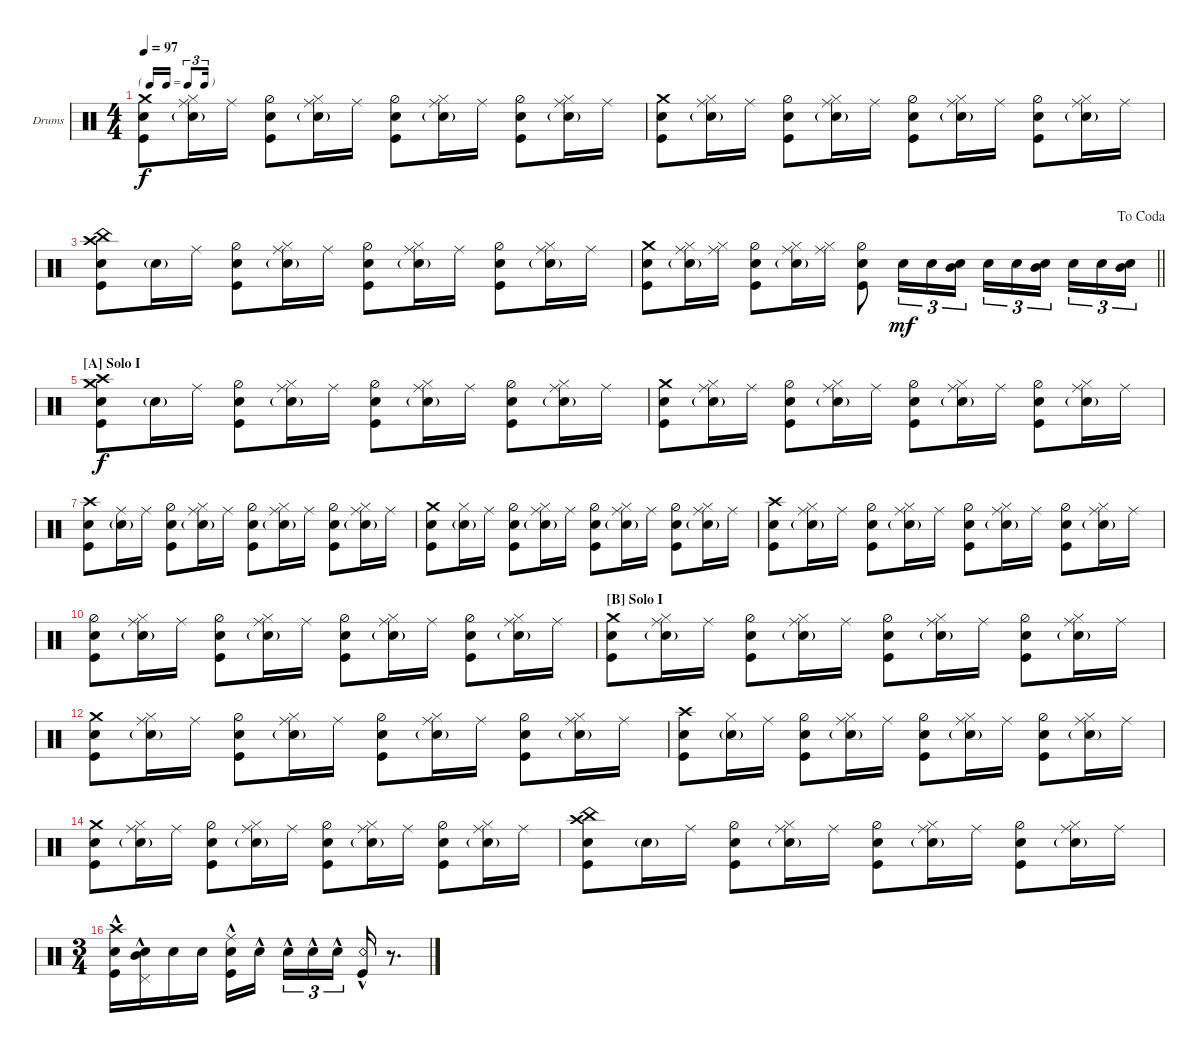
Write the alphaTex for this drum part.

\defaultSystemsLayout 4
\bracketExtendMode nobrackets
\firstSystemTrackNameOrientation horizontal
\otherSystemsTrackNameOrientation horizontal
\defaultBarNumberDisplay FirstOfSystem
\track ("Drums" "Drums") {instrument percussion}
\staff {score}
\articulation defaults
\ts (4 4)
\tf triplet16th
\tempo 97
\clef neutral
\scale
0.333333
\ks c
("Snare (hit) 2" "Kick (hit)" "Crash medium (hit)").8{dy f} ("Snare (hit) 2"{g} "Hi-Hat (closed)" "Ride (middle)").16 "Ride (middle)".16 ("Snare (hit) 2" "Kick (hit)" "Hi-Hat (half)").8 ("Hi-Hat (closed)" "Snare (hit) 2"{g} "Ride (middle)").16 "Ride (middle)".16 ("Kick (hit)" "Snare (hit) 2" "Hi-Hat (half)").8 ("Hi-Hat (closed)" "Snare (hit) 2"{g} "Ride (middle)").16 "Ride (middle)".16 ("Snare (hit) 2" "Kick (hit)" "Hi-Hat (half)").8 ("Hi-Hat (closed)" "Snare (hit) 2"{g} "Ride (middle)").16 "Ride (middle)".16 |
\scale
0.333333 ("Snare (hit) 2" "Kick (hit)" "Crash medium (hit)").8 ("Snare (hit) 2"{g} "Hi-Hat (closed)" "Ride (middle)").16 "Ride (middle)".16 ("Snare (hit) 2" "Kick (hit)" "Hi-Hat (half)").8 ("Hi-Hat (closed)" "Snare (hit) 2"{g} "Ride (middle)").16 "Ride (middle)".16 ("Kick (hit)" "Snare (hit) 2" "Hi-Hat (half)").8 ("Hi-Hat (closed)" "Snare (hit) 2"{g} "Ride (middle)").16 "Ride (middle)".16 ("Snare (hit) 2" "Kick (hit)" "Hi-Hat (half)").8 ("Hi-Hat (closed)" "Snare (hit) 2"{g} "Ride (middle)").16 "Ride (middle)".16 |
\scale
0.333333 ("Snare (hit) 2" "Kick (hit)" "Crash high (hit)" "China (hit)").8 "Snare (hit) 2"{g}.16 "Ride (middle)".16 ("Snare (hit) 2" "Kick (hit)" "Hi-Hat (half)").8 ("Hi-Hat (closed)" "Snare (hit) 2"{g} "Ride (middle)").16 "Ride (middle)".16 ("Kick (hit)" "Snare (hit) 2" "Hi-Hat (half)").8 ("Hi-Hat (closed)" "Snare (hit) 2"{g} "Ride (middle)").16 "Ride (middle)".16 ("Snare (hit) 2" "Kick (hit)" "Hi-Hat (half)").8 ("Hi-Hat (closed)" "Snare (hit) 2"{g} "Ride (middle)").16 "Ride (middle)".16 |
\jump dacoda
\scale
0.333333
\barLineRight lightlight
("Snare (hit) 2" "Kick (hit)" "Crash medium (hit)").8 ("Hi-Hat (closed)" "Snare (hit) 2"{g} "Ride (middle)").16 ("Hi-Hat (closed)" "Ride (middle)").16 ("Snare (hit) 2" "Kick (hit)" "Hi-Hat (half)").8 ("Hi-Hat (closed)" "Snare (hit) 2"{g} "Ride (middle)").16 ("Hi-Hat (closed)" "Ride (middle)").16 ("Kick (hit)" "Snare (hit) 2" "Hi-Hat (half)").8 "Snare (hit) 2".16{tu (3 2) dy mf} "Snare (hit) 2".16{tu (3 2)} ("Snare (hit) 2" "Mid Tom (hit)").16{tu (3 2)} "Snare (hit) 2".16{tu (3 2)} "Snare (hit) 2".16{tu (3 2)} ("Mid Tom (hit)" "Snare (hit) 2").16{tu (3 2)} "Snare (hit) 2".16{tu (3 2)} "Snare (hit) 2".16{tu (3 2)} ("Mid Tom (hit)" "Snare (hit) 2").16{tu (3 2)} |
\section ("A" "Solo I")
\scale
0.333333 ("Snare (hit) 2" "Kick (hit)" "Crash medium (hit)" "Crash high (hit)").8{dy f} "Snare (hit) 2"{g}.16 "Ride (middle)".16 ("Snare (hit) 2" "Kick (hit)" "Hi-Hat (half)").8 ("Hi-Hat (closed)" "Snare (hit) 2"{g} "Ride (middle)").16 "Ride (middle)".16 ("Kick (hit)" "Snare (hit) 2" "Hi-Hat (half)").8 ("Hi-Hat (closed)" "Snare (hit) 2"{g} "Ride (middle)").16 "Ride (middle)".16 ("Snare (hit) 2" "Kick (hit)" "Hi-Hat (half)").8 ("Hi-Hat (closed)" "Snare (hit) 2"{g} "Ride (middle)").16 "Ride (middle)".16 |
\scale
0.333333 ("Snare (hit) 2" "Kick (hit)" "Crash medium (hit)").8 ("Snare (hit) 2"{g} "Hi-Hat (closed)" "Ride (middle)").16 "Ride (middle)".16 ("Snare (hit) 2" "Kick (hit)" "Hi-Hat (half)").8 ("Hi-Hat (closed)" "Snare (hit) 2"{g} "Ride (middle)").16 "Ride (middle)".16 ("Kick (hit)" "Snare (hit) 2" "Hi-Hat (half)").8 ("Hi-Hat (closed)" "Snare (hit) 2"{g} "Ride (middle)").16 "Ride (middle)".16 ("Snare (hit) 2" "Kick (hit)" "Hi-Hat (half)").8 ("Hi-Hat (closed)" "Snare (hit) 2"{g} "Ride (middle)").16 "Ride (middle)".16 |
\scale
0.333333 ("Snare (hit) 2" "Kick (hit)" "Crash high (hit)").8 ("Snare (hit) 2"{g} "Ride (middle)").16 "Ride (middle)".16 ("Snare (hit) 2" "Kick (hit)" "Hi-Hat (half)").8 ("Hi-Hat (closed)" "Snare (hit) 2"{g} "Ride (middle)").16 "Ride (middle)".16 ("Kick (hit)" "Snare (hit) 2" "Hi-Hat (half)").8 ("Hi-Hat (closed)" "Snare (hit) 2"{g} "Ride (middle)").16 "Ride (middle)".16 ("Snare (hit) 2" "Kick (hit)" "Hi-Hat (half)").8 ("Hi-Hat (closed)" "Snare (hit) 2"{g} "Ride (middle)").16 "Ride (middle)".16 |
\scale
0.333333 ("Snare (hit) 2" "Kick (hit)" "Crash medium (hit)").8 ("Snare (hit) 2"{g} "Hi-Hat (closed)").16 "Ride (middle)".16 ("Snare (hit) 2" "Kick (hit)" "Hi-Hat (half)").8 ("Hi-Hat (closed)" "Snare (hit) 2"{g} "Ride (middle)").16 "Ride (middle)".16 ("Kick (hit)" "Snare (hit) 2" "Hi-Hat (half)").8 ("Hi-Hat (closed)" "Snare (hit) 2"{g} "Ride (middle)").16 "Ride (middle)".16 ("Snare (hit) 2" "Kick (hit)" "Hi-Hat (half)").8 ("Hi-Hat (closed)" "Snare (hit) 2"{g} "Ride (middle)").16 "Ride (middle)".16 |
\scale
0.333333 ("Snare (hit) 2" "Kick (hit)" "Crash high (hit)").8 ("Snare (hit) 2"{g} "Hi-Hat (closed)" "Ride (middle)").16 "Ride (middle)".16 ("Snare (hit) 2" "Kick (hit)" "Hi-Hat (half)").8 ("Hi-Hat (closed)" "Snare (hit) 2"{g} "Ride (middle)").16 "Ride (middle)".16 ("Kick (hit)" "Snare (hit) 2" "Hi-Hat (half)").8 ("Hi-Hat (closed)" "Snare (hit) 2"{g} "Ride (middle)").16 "Ride (middle)".16 ("Snare (hit) 2" "Kick (hit)" "Hi-Hat (half)").8 ("Hi-Hat (closed)" "Snare (hit) 2"{g} "Ride (middle)").16 "Ride (middle)".16 |
\scale
0.333333 ("Snare (hit) 2" "Kick (hit)" "Hi-Hat (half)").8 ("Snare (hit) 2"{g} "Hi-Hat (closed)" "Ride (middle)").16 "Ride (middle)".16 ("Snare (hit) 2" "Kick (hit)" "Hi-Hat (half)").8 ("Hi-Hat (closed)" "Snare (hit) 2"{g} "Ride (middle)").16 "Ride (middle)".16 ("Kick (hit)" "Snare (hit) 2" "Hi-Hat (half)").8 ("Hi-Hat (closed)" "Snare (hit) 2"{g} "Ride (middle)").16 "Ride (middle)".16 ("Snare (hit) 2" "Kick (hit)" "Hi-Hat (half)").8 ("Hi-Hat (closed)" "Snare (hit) 2"{g} "Ride (middle)").16 "Ride (middle)".16 |
\section ("B" "Solo I")
\scale
0.333333 ("Snare (hit) 2" "Kick (hit)" "Crash medium (hit)").8 ("Snare (hit) 2"{g} "Hi-Hat (closed)" "Ride (middle)").16 "Ride (middle)".16 ("Snare (hit) 2" "Kick (hit)" "Hi-Hat (half)").8 ("Hi-Hat (closed)" "Snare (hit) 2"{g} "Ride (middle)").16 "Ride (middle)".16 ("Kick (hit)" "Snare (hit) 2" "Hi-Hat (half)").8 ("Hi-Hat (closed)" "Snare (hit) 2"{g} "Ride (middle)").16 "Ride (middle)".16 ("Snare (hit) 2" "Kick (hit)" "Hi-Hat (half)").8 ("Hi-Hat (closed)" "Snare (hit) 2"{g} "Ride (middle)").16 "Ride (middle)".16 |
\scale
0.333333 ("Snare (hit) 2" "Kick (hit)" "Crash medium (hit)").8 ("Snare (hit) 2"{g} "Hi-Hat (closed)" "Ride (middle)").16 "Ride (middle)".16 ("Snare (hit) 2" "Kick (hit)" "Hi-Hat (half)").8 ("Hi-Hat (closed)" "Snare (hit) 2"{g} "Ride (middle)").16 "Ride (middle)".16 ("Kick (hit)" "Snare (hit) 2" "Hi-Hat (half)").8 ("Hi-Hat (closed)" "Snare (hit) 2"{g} "Ride (middle)").16 "Ride (middle)".16 ("Snare (hit) 2" "Kick (hit)" "Hi-Hat (half)").8 ("Hi-Hat (closed)" "Snare (hit) 2"{g} "Ride (middle)").16 "Ride (middle)".16 |
\scale
0.333333 ("Snare (hit) 2" "Kick (hit)" "Crash high (hit)").8 ("Snare (hit) 2"{g} "Hi-Hat (closed)").16 "Ride (middle)".16 ("Snare (hit) 2" "Kick (hit)" "Hi-Hat (half)").8 ("Hi-Hat (closed)" "Snare (hit) 2"{g} "Ride (middle)").16 "Ride (middle)".16 ("Kick (hit)" "Snare (hit) 2" "Hi-Hat (half)").8 ("Hi-Hat (closed)" "Snare (hit) 2"{g} "Ride (middle)").16 "Ride (middle)".16 ("Snare (hit) 2" "Kick (hit)" "Hi-Hat (half)").8 ("Hi-Hat (closed)" "Snare (hit) 2"{g} "Ride (middle)").16 "Ride (middle)".16 |
\scale
0.333333 ("Snare (hit) 2" "Kick (hit)" "Crash medium (hit)").8 ("Snare (hit) 2"{g} "Hi-Hat (closed)" "Ride (middle)").16 "Ride (middle)".16 ("Snare (hit) 2" "Kick (hit)" "Hi-Hat (half)").8 ("Hi-Hat (closed)" "Snare (hit) 2"{g} "Ride (middle)").16 "Ride (middle)".16 ("Kick (hit)" "Snare (hit) 2" "Hi-Hat (half)").8 ("Hi-Hat (closed)" "Snare (hit) 2"{g} "Ride (middle)").16 "Ride (middle)".16 ("Snare (hit) 2" "Kick (hit)" "Hi-Hat (half)").8 ("Hi-Hat (closed)" "Snare (hit) 2"{g} "Ride (middle)").16 "Ride (middle)".16 |
\scale
0.333333 ("Snare (hit) 2" "Kick (hit)" "Crash high (hit)" "China (hit)").8 "Snare (hit) 2"{g}.16 "Ride (middle)".16 ("Snare (hit) 2" "Kick (hit)" "Hi-Hat (half)").8 ("Hi-Hat (closed)" "Snare (hit) 2"{g} "Ride (middle)").16 "Ride (middle)".16 ("Kick (hit)" "Snare (hit) 2" "Hi-Hat (half)").8 ("Hi-Hat (closed)" "Snare (hit) 2"{g} "Ride (middle)").16 "Ride (middle)".16 ("Snare (hit) 2" "Kick (hit)" "Hi-Hat (half)").8 ("Hi-Hat (closed)" "Snare (hit) 2"{g} "Ride (middle)").16 "Ride (middle)".16 |
\ts (3 4)
\scale
0.333333 ("Snare (hit) 2" "Kick (hit)" "Crash high (hit)"{hac}).16 ("Snare (hit) 2"{hac} "Pedal Hi-Hat (hit)" "Mid Tom (hit)").16 "Snare (hit) 2".16 "Snare (hit) 2".16 ("Kick (hit)"{hac} "Snare (hit) 2"{hac} "Ride (middle)").16{beam merge} "Snare (hit) 2"{hac}.16{beam split} "Snare (hit) 2"{hac}.16{tu (3 2)} "Snare (hit) 2"{hac}.16{tu (3 2)} "Snare (hit) 2"{hac}.16{tu (3 2)} ("Snare (rim shot)"{hac} "Kick (hit)"{hac}).16 r.8{d}
